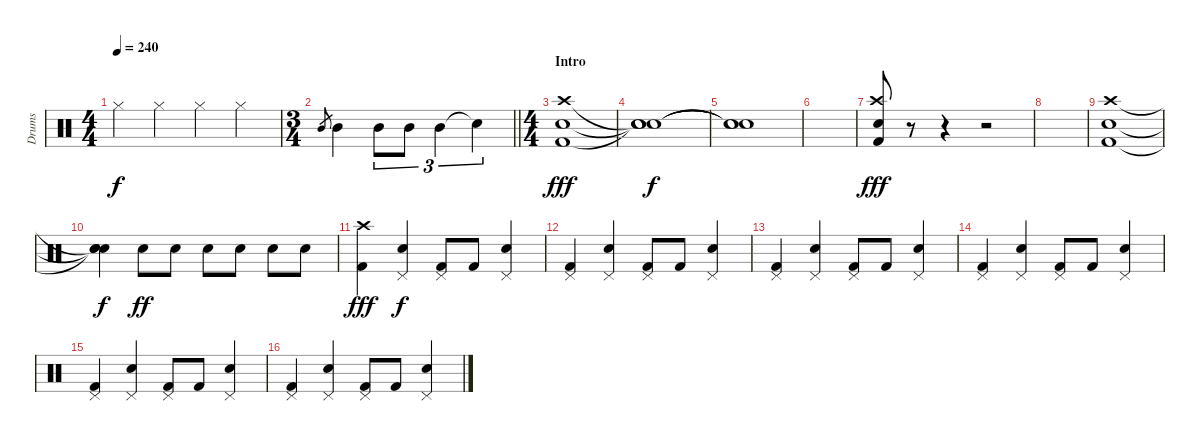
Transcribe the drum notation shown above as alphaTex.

\track ("Drums" "Drums") {instrument percussion}
\staff {score}
\articulation defaults
\ts (4 4)
\tempo 240
\clef neutral
\ks c "Hi-Hat (closed)".4{dy f} "Hi-Hat (closed)".4 "Hi-Hat (closed)".4 "Hi-Hat (closed)".4
|
\ts (3 4)
\barLineRight lightlight "Mid Tom (hit)".8{gr} "Mid Tom (hit)".4 "Mid Tom (hit)".8{tu (3 2)} "Mid Tom (hit)".8{tu (3 2)} "Mid Tom (hit)".4{tu (3 2)} "Snare (hit)"{t}.4{tu (3 2)}
|
\ts (4 4)
\section ("" "Intro")
("Crash high (hit)" "Snare (hit) 2" "Kick (hit) 2").1{dy fff} |
("Snare (hit)"{t} "Snare (hit)"{t} "Snare (hit)"{t}).1{dy f} |
("Snare (hit)"{t} "Snare (hit)"{t} "Snare (hit)"{t}).1 |
|
("Crash high (hit)" "Snare (hit) 2" "Kick (hit) 2").8{dy fff} r.8 r.4 r.2 |
|
("Crash high (hit)" "Snare (hit) 2" "Kick (hit) 2").1 |
("Snare (hit)"{t} "Snare (hit)"{t} "Snare (hit)"{t}).4{dy f} "Electric Snare (hit)".8{dy ff} "Electric Snare (hit)".8 "Electric Snare (hit)".8 "Electric Snare (hit)".8 "Electric Snare (hit)".8 "Electric Snare (hit)".8 |
("Crash high (hit)" "Kick (hit) 2").4{dy fff} ("Pedal Hi-Hat (hit)" "Snare (hit) 2").4{dy f} ("Pedal Hi-Hat (hit)" "Kick (hit) 2").8 "Kick (hit) 2".8 ("Pedal Hi-Hat (hit)" "Snare (hit) 2").4 |
("Pedal Hi-Hat (hit)" "Kick (hit) 2").4 ("Pedal Hi-Hat (hit)" "Snare (hit) 2").4 ("Pedal Hi-Hat (hit)" "Kick (hit) 2").8 "Kick (hit) 2".8 ("Pedal Hi-Hat (hit)" "Snare (hit) 2").4 |
("Pedal Hi-Hat (hit)" "Kick (hit) 2").4 ("Pedal Hi-Hat (hit)" "Snare (hit) 2").4 ("Pedal Hi-Hat (hit)" "Kick (hit) 2").8 "Kick (hit) 2".8 ("Pedal Hi-Hat (hit)" "Snare (hit) 2").4 |
("Pedal Hi-Hat (hit)" "Kick (hit) 2").4 ("Pedal Hi-Hat (hit)" "Snare (hit) 2").4 ("Pedal Hi-Hat (hit)" "Kick (hit) 2").8 "Kick (hit) 2".8 ("Pedal Hi-Hat (hit)" "Snare (hit) 2").4 |
("Pedal Hi-Hat (hit)" "Kick (hit) 2").4 ("Pedal Hi-Hat (hit)" "Snare (hit) 2").4 ("Pedal Hi-Hat (hit)" "Kick (hit) 2").8 "Kick (hit) 2".8 ("Pedal Hi-Hat (hit)" "Snare (hit) 2").4 |
("Pedal Hi-Hat (hit)" "Kick (hit) 2").4 ("Pedal Hi-Hat (hit)" "Snare (hit) 2").4 ("Pedal Hi-Hat (hit)" "Kick (hit) 2").8 "Kick (hit) 2".8 ("Pedal Hi-Hat (hit)" "Snare (hit) 2").4
